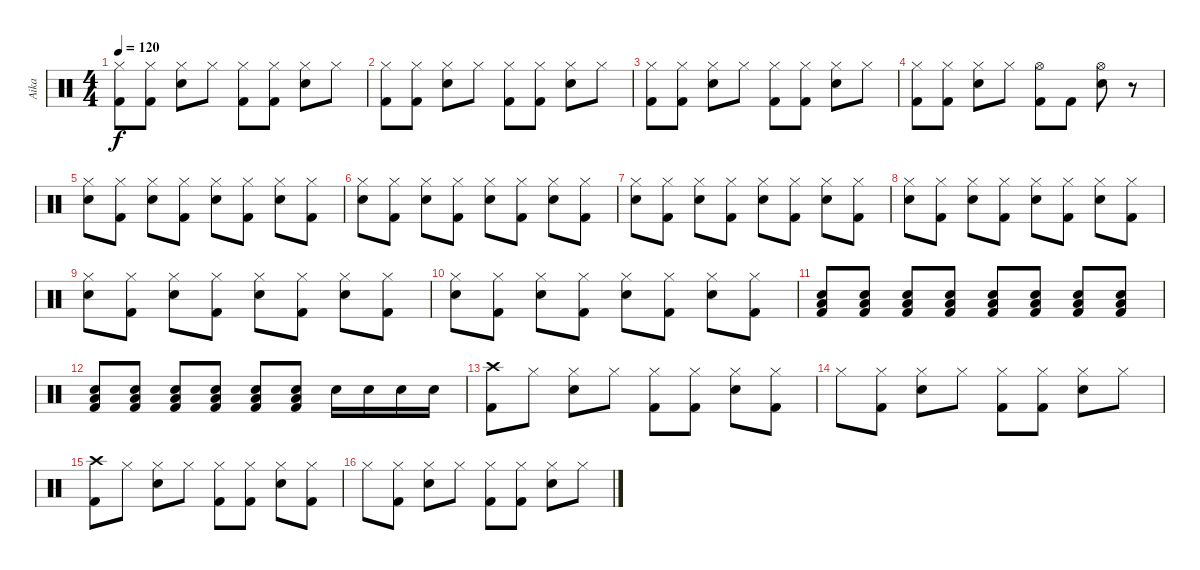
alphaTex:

\track ("Aika" "Aika") {instrument percussion}
\staff {score}
\articulation defaults
\ts (4 4)
\tempo 120
\clef neutral
\ks c
("Hi-Hat (closed)" "Kick (hit) 2").8{dy f} ("Hi-Hat (closed)" "Kick (hit) 2").8 ("Hi-Hat (closed)" "Snare (hit) 2").8 "Hi-Hat (closed)".8 ("Hi-Hat (closed)" "Kick (hit) 2").8 ("Hi-Hat (closed)" "Kick (hit) 2").8 ("Hi-Hat (closed)" "Snare (hit) 2").8 "Hi-Hat (closed)".8 |
("Hi-Hat (closed)" "Kick (hit) 2").8 ("Hi-Hat (closed)" "Kick (hit) 2").8 ("Hi-Hat (closed)" "Snare (hit) 2").8 "Hi-Hat (closed)".8 ("Hi-Hat (closed)" "Kick (hit) 2").8 ("Hi-Hat (closed)" "Kick (hit) 2").8 ("Hi-Hat (closed)" "Snare (hit) 2").8 "Hi-Hat (closed)".8 |
("Hi-Hat (closed)" "Kick (hit) 2").8 ("Hi-Hat (closed)" "Kick (hit) 2").8 ("Hi-Hat (closed)" "Snare (hit) 2").8 "Hi-Hat (closed)".8 ("Hi-Hat (closed)" "Kick (hit) 2").8 ("Hi-Hat (closed)" "Kick (hit) 2").8 ("Hi-Hat (closed)" "Snare (hit) 2").8 "Hi-Hat (closed)".8 |
("Hi-Hat (closed)" "Kick (hit) 2").8 ("Hi-Hat (closed)" "Kick (hit) 2").8 ("Hi-Hat (closed)" "Snare (hit) 2").8 "Hi-Hat (closed)".8 ("Hi-Hat (open)" "Kick (hit) 2").8 "Kick (hit) 2".8 ("Hi-Hat (open)" "Snare (hit) 2").8 r.8 |
("Hi-Hat (closed)" "Snare (hit) 2").8 ("Hi-Hat (closed)" "Kick (hit) 2").8 ("Hi-Hat (closed)" "Snare (hit) 2").8 ("Hi-Hat (closed)" "Kick (hit) 2").8 ("Hi-Hat (closed)" "Snare (hit) 2").8 ("Hi-Hat (closed)" "Kick (hit) 2").8 ("Hi-Hat (closed)" "Snare (hit) 2").8 ("Hi-Hat (closed)" "Kick (hit) 2").8 |
("Hi-Hat (closed)" "Snare (hit) 2").8 ("Hi-Hat (closed)" "Kick (hit) 2").8 ("Hi-Hat (closed)" "Snare (hit) 2").8 ("Hi-Hat (closed)" "Kick (hit) 2").8 ("Hi-Hat (closed)" "Snare (hit) 2").8 ("Hi-Hat (closed)" "Kick (hit) 2").8 ("Hi-Hat (closed)" "Snare (hit) 2").8 ("Hi-Hat (closed)" "Kick (hit) 2").8 |
("Hi-Hat (closed)" "Snare (hit) 2").8 ("Hi-Hat (closed)" "Kick (hit) 2").8 ("Hi-Hat (closed)" "Snare (hit) 2").8 ("Hi-Hat (closed)" "Kick (hit) 2").8 ("Hi-Hat (closed)" "Snare (hit) 2").8 ("Hi-Hat (closed)" "Kick (hit) 2").8 ("Hi-Hat (closed)" "Snare (hit) 2").8 ("Hi-Hat (closed)" "Kick (hit) 2").8 |
("Hi-Hat (closed)" "Snare (hit) 2").8 ("Hi-Hat (closed)" "Kick (hit) 2").8 ("Hi-Hat (closed)" "Snare (hit) 2").8 ("Hi-Hat (closed)" "Kick (hit) 2").8 ("Hi-Hat (closed)" "Snare (hit) 2").8 ("Hi-Hat (closed)" "Kick (hit) 2").8 ("Hi-Hat (closed)" "Snare (hit) 2").8 ("Hi-Hat (closed)" "Kick (hit) 2").8 |
("Hi-Hat (closed)" "Snare (hit) 2").8 ("Hi-Hat (closed)" "Kick (hit) 2").8 ("Hi-Hat (closed)" "Snare (hit) 2").8 ("Hi-Hat (closed)" "Kick (hit) 2").8 ("Hi-Hat (closed)" "Snare (hit) 2").8 ("Hi-Hat (closed)" "Kick (hit) 2").8 ("Hi-Hat (closed)" "Snare (hit) 2").8 ("Hi-Hat (closed)" "Kick (hit) 2").8 |
("Hi-Hat (closed)" "Snare (hit) 2").8 ("Hi-Hat (closed)" "Kick (hit) 2").8 ("Hi-Hat (closed)" "Snare (hit) 2").8 ("Hi-Hat (closed)" "Kick (hit) 2").8 ("Hi-Hat (closed)" "Snare (hit) 2").8 ("Hi-Hat (closed)" "Kick (hit) 2").8 ("Hi-Hat (closed)" "Snare (hit) 2").8 ("Hi-Hat (closed)" "Kick (hit) 2").8 |
("Low Floor Tom (hit)" "Kick (hit) 2" "Snare (hit) 2").8 ("Low Floor Tom (hit)" "Kick (hit) 2" "Snare (hit) 2").8 ("Low Floor Tom (hit)" "Kick (hit) 2" "Snare (hit) 2").8 ("Low Floor Tom (hit)" "Kick (hit) 2" "Snare (hit) 2").8 ("Low Floor Tom (hit)" "Kick (hit) 2" "Snare (hit) 2").8 ("Low Floor Tom (hit)" "Kick (hit) 2" "Snare (hit) 2").8 ("Low Floor Tom (hit)" "Kick (hit) 2" "Snare (hit) 2").8 ("Low Floor Tom (hit)" "Kick (hit) 2" "Snare (hit) 2").8 |
("Low Floor Tom (hit)" "Kick (hit) 2" "Snare (hit) 2").8 ("Low Floor Tom (hit)" "Kick (hit) 2" "Snare (hit) 2").8 ("Low Floor Tom (hit)" "Kick (hit) 2" "Snare (hit) 2").8 ("Low Floor Tom (hit)" "Kick (hit) 2" "Snare (hit) 2").8 ("Low Floor Tom (hit)" "Kick (hit) 2" "Snare (hit) 2").8 ("Low Floor Tom (hit)" "Kick (hit) 2" "Snare (hit) 2").8 "Snare (hit) 2".16 "Snare (hit) 2".16 "Snare (hit) 2".16 "Snare (hit) 2".16 |
("Crash high (hit)" "Kick (hit) 2").8 "Hi-Hat (closed)".8 ("Hi-Hat (closed)" "Snare (hit) 2").8 "Hi-Hat (closed)".8 ("Hi-Hat (closed)" "Kick (hit) 2").8 ("Hi-Hat (closed)" "Kick (hit) 2").8 ("Hi-Hat (closed)" "Snare (hit) 2").8 ("Hi-Hat (closed)" "Kick (hit) 2").8 |
"Hi-Hat (closed)".8 ("Hi-Hat (closed)" "Kick (hit) 2").8 ("Hi-Hat (closed)" "Snare (hit) 2").8 "Hi-Hat (closed)".8 ("Hi-Hat (closed)" "Kick (hit) 2").8 ("Hi-Hat (closed)" "Kick (hit) 2").8 ("Hi-Hat (closed)" "Snare (hit) 2").8 "Hi-Hat (closed)".8 |
("Crash high (hit)" "Kick (hit) 2").8 "Hi-Hat (closed)".8 ("Hi-Hat (closed)" "Snare (hit) 2").8 "Hi-Hat (closed)".8 ("Hi-Hat (closed)" "Kick (hit) 2").8 ("Hi-Hat (closed)" "Kick (hit) 2").8 ("Hi-Hat (closed)" "Snare (hit) 2").8 ("Hi-Hat (closed)" "Kick (hit) 2").8 |
"Hi-Hat (closed)".8 ("Hi-Hat (closed)" "Kick (hit) 2").8 ("Hi-Hat (closed)" "Snare (hit) 2").8 "Hi-Hat (closed)".8 ("Hi-Hat (closed)" "Kick (hit) 2").8 ("Hi-Hat (closed)" "Kick (hit) 2").8 ("Hi-Hat (closed)" "Snare (hit) 2").8 "Hi-Hat (closed)".8
